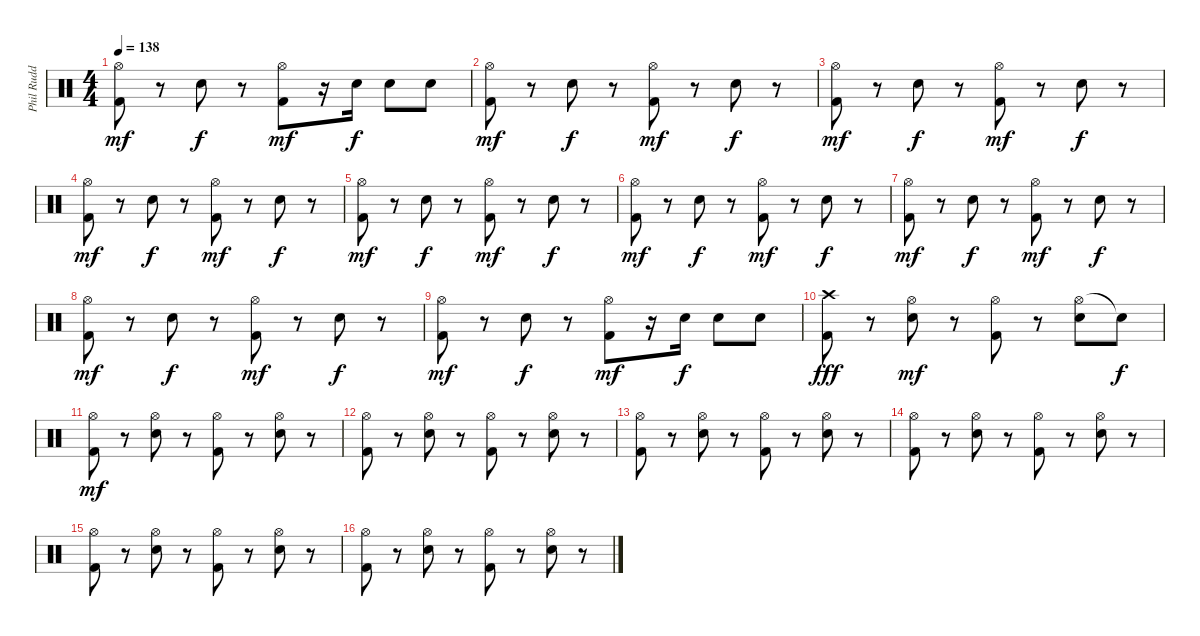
\track ("Phil Rudd" "Phil Rudd") {instrument percussion}
\staff {score}
\articulation defaults
\ts (4 4)
\tempo 138
\clef neutral
\ks c
("Hi-Hat (open)" "Kick (hit) 2").8{dy mf} r.8 "Snare (hit) 2".8{dy f} r.8 ("Hi-Hat (open)" "Kick (hit) 2").8{dy mf} r.16 "Snare (hit) 2".16{dy f} "Snare (hit) 2".8 "Snare (hit) 2".8 |
("Hi-Hat (open)" "Kick (hit) 2").8{dy mf} r.8 "Snare (hit) 2".8{dy f} r.8 ("Hi-Hat (open)" "Kick (hit) 2").8{dy mf} r.8 "Snare (hit) 2".8{dy f} r.8 |
("Hi-Hat (open)" "Kick (hit) 2").8{dy mf} r.8 "Snare (hit) 2".8{dy f} r.8 ("Hi-Hat (open)" "Kick (hit) 2").8{dy mf} r.8 "Snare (hit) 2".8{dy f} r.8 |
("Hi-Hat (open)" "Kick (hit) 2").8{dy mf} r.8 "Snare (hit) 2".8{dy f} r.8 ("Hi-Hat (open)" "Kick (hit) 2").8{dy mf} r.8 "Snare (hit) 2".8{dy f} r.8 |
("Hi-Hat (open)" "Kick (hit) 2").8{dy mf} r.8 "Snare (hit) 2".8{dy f} r.8 ("Hi-Hat (open)" "Kick (hit) 2").8{dy mf} r.8 "Snare (hit) 2".8{dy f} r.8 |
("Hi-Hat (open)" "Kick (hit) 2").8{dy mf} r.8 "Snare (hit) 2".8{dy f} r.8 ("Hi-Hat (open)" "Kick (hit) 2").8{dy mf} r.8 "Snare (hit) 2".8{dy f} r.8 |
("Hi-Hat (open)" "Kick (hit) 2").8{dy mf} r.8 "Snare (hit) 2".8{dy f} r.8 ("Hi-Hat (open)" "Kick (hit) 2").8{dy mf} r.8 "Snare (hit) 2".8{dy f} r.8 |
("Hi-Hat (open)" "Kick (hit) 2").8{dy mf} r.8 "Snare (hit) 2".8{dy f} r.8 ("Hi-Hat (open)" "Kick (hit) 2").8{dy mf} r.8 "Snare (hit) 2".8{dy f} r.8 |
("Hi-Hat (open)" "Kick (hit) 2").8{dy mf} r.8 "Snare (hit) 2".8{dy f} r.8 ("Hi-Hat (open)" "Kick (hit) 2").8{dy mf} r.16 "Snare (hit) 2".16{dy f} "Snare (hit) 2".8 "Snare (hit) 2".8 |
("Crash high (hit)" "Kick (hit) 2").8{dy fff} r.8 ("Hi-Hat (open)" "Snare (hit) 2").8{dy mf} r.8 ("Hi-Hat (open)" "Kick (hit) 2").8 r.8 ("Hi-Hat (open)" "Snare (hit) 2").8 "Snare (hit)"{t}.8{dy f} |
("Hi-Hat (open)" "Kick (hit) 2").8{dy mf} r.8 ("Hi-Hat (open)" "Snare (hit) 2").8 r.8 ("Hi-Hat (open)" "Kick (hit) 2").8 r.8 ("Hi-Hat (open)" "Snare (hit) 2").8 r.8 |
("Hi-Hat (open)" "Kick (hit) 2").8 r.8 ("Hi-Hat (open)" "Snare (hit) 2").8 r.8 ("Hi-Hat (open)" "Kick (hit) 2").8 r.8 ("Hi-Hat (open)" "Snare (hit) 2").8 r.8 |
("Hi-Hat (open)" "Kick (hit) 2").8 r.8 ("Hi-Hat (open)" "Snare (hit) 2").8 r.8 ("Hi-Hat (open)" "Kick (hit) 2").8 r.8 ("Hi-Hat (open)" "Snare (hit) 2").8 r.8 |
("Hi-Hat (open)" "Kick (hit) 2").8 r.8 ("Hi-Hat (open)" "Snare (hit) 2").8 r.8 ("Hi-Hat (open)" "Kick (hit) 2").8 r.8 ("Hi-Hat (open)" "Snare (hit) 2").8 r.8 |
("Hi-Hat (open)" "Kick (hit) 2").8 r.8 ("Hi-Hat (open)" "Snare (hit) 2").8 r.8 ("Hi-Hat (open)" "Kick (hit) 2").8 r.8 ("Hi-Hat (open)" "Snare (hit) 2").8 r.8 |
("Hi-Hat (open)" "Kick (hit) 2").8 r.8 ("Hi-Hat (open)" "Snare (hit) 2").8 r.8 ("Hi-Hat (open)" "Kick (hit) 2").8 r.8 ("Hi-Hat (open)" "Snare (hit) 2").8 r.8
